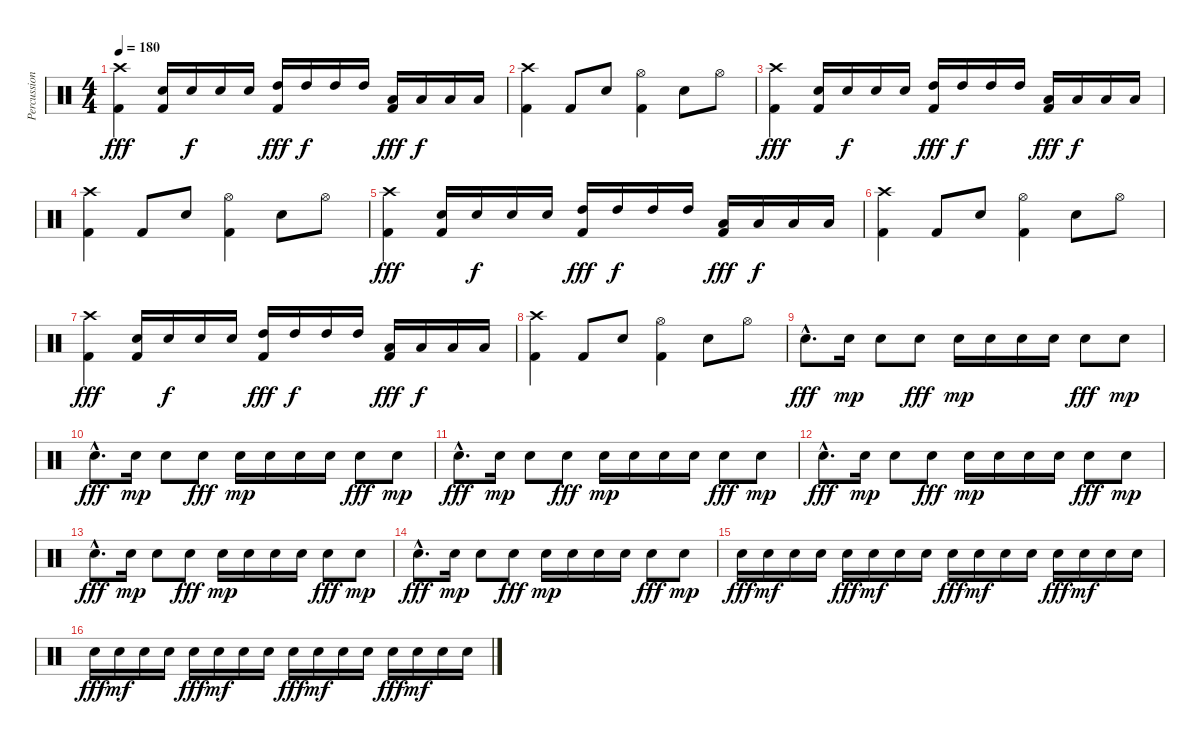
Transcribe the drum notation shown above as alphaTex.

\track ("Percussion" "Percussion") {instrument percussion}
\staff {score}
\articulation defaults
\ts (4 4)
\tempo 180
\clef neutral
\ks c
("Crash high (hit)" "Kick (hit) 2").4{dy fff} ("Snare (hit) 2" "Kick (hit) 2").16 "Snare (hit) 2".16{dy f} "Snare (hit) 2".16 "Snare (hit) 2".16 ("High Tom (hit)" "Kick (hit) 2").16{dy fff} "High Tom (hit)".16{dy f} "High Tom (hit)".16 "High Tom (hit)".16 ("Low Floor Tom (hit)" "Kick (hit) 2").16{dy fff} "Low Floor Tom (hit)".16{dy f} "Low Floor Tom (hit)".16 "Low Floor Tom (hit)".16 |
("Crash high (hit)" "Kick (hit) 2").4 "Kick (hit) 2".8 "Electric Snare (hit)".8 ("Hi-Hat (open)" "Kick (hit) 2").4 "Electric Snare (hit)".8 "Hi-Hat (open)".8 |
("Crash high (hit)" "Kick (hit) 2").4{dy fff} ("Snare (hit) 2" "Kick (hit) 2").16 "Snare (hit) 2".16{dy f} "Snare (hit) 2".16 "Snare (hit) 2".16 ("High Tom (hit)" "Kick (hit) 2").16{dy fff} "High Tom (hit)".16{dy f} "High Tom (hit)".16 "High Tom (hit)".16 ("Low Floor Tom (hit)" "Kick (hit) 2").16{dy fff} "Low Floor Tom (hit)".16{dy f} "Low Floor Tom (hit)".16 "Low Floor Tom (hit)".16 |
("Crash high (hit)" "Kick (hit) 2").4 "Kick (hit) 2".8 "Electric Snare (hit)".8 ("Hi-Hat (open)" "Kick (hit) 2").4 "Electric Snare (hit)".8 "Hi-Hat (open)".8 |
("Crash high (hit)" "Kick (hit) 2").4{dy fff} ("Snare (hit) 2" "Kick (hit) 2").16 "Snare (hit) 2".16{dy f} "Snare (hit) 2".16 "Snare (hit) 2".16 ("High Tom (hit)" "Kick (hit) 2").16{dy fff} "High Tom (hit)".16{dy f} "High Tom (hit)".16 "High Tom (hit)".16 ("Low Floor Tom (hit)" "Kick (hit) 2").16{dy fff} "Low Floor Tom (hit)".16{dy f} "Low Floor Tom (hit)".16 "Low Floor Tom (hit)".16 |
("Crash high (hit)" "Kick (hit) 2").4 "Kick (hit) 2".8 "Electric Snare (hit)".8 ("Hi-Hat (open)" "Kick (hit) 2").4 "Electric Snare (hit)".8 "Hi-Hat (open)".8 |
("Crash high (hit)" "Kick (hit) 2").4{dy fff} ("Snare (hit) 2" "Kick (hit) 2").16 "Snare (hit) 2".16{dy f} "Snare (hit) 2".16 "Snare (hit) 2".16 ("High Tom (hit)" "Kick (hit) 2").16{dy fff} "High Tom (hit)".16{dy f} "High Tom (hit)".16 "High Tom (hit)".16 ("Low Floor Tom (hit)" "Kick (hit) 2").16{dy fff} "Low Floor Tom (hit)".16{dy f} "Low Floor Tom (hit)".16 "Low Floor Tom (hit)".16 |
("Crash high (hit)" "Kick (hit) 2").4 "Kick (hit) 2".8 "Electric Snare (hit)".8 ("Hi-Hat (open)" "Kick (hit) 2").4 "Electric Snare (hit)".8 "Hi-Hat (open)".8 |
"Electric Snare (hit)"{hac}.8{d dy fff} "Electric Snare (hit)".16{dy mp} "Electric Snare (hit)".8 "Electric Snare (hit)".8{dy fff} "Electric Snare (hit)".16{dy mp} "Electric Snare (hit)".16 "Electric Snare (hit)".16 "Electric Snare (hit)".16 "Electric Snare (hit)".8{dy fff} "Electric Snare (hit)".8{dy mp} |
"Electric Snare (hit)"{hac}.8{d dy fff} "Electric Snare (hit)".16{dy mp} "Electric Snare (hit)".8 "Electric Snare (hit)".8{dy fff} "Electric Snare (hit)".16{dy mp} "Electric Snare (hit)".16 "Electric Snare (hit)".16 "Electric Snare (hit)".16 "Electric Snare (hit)".8{dy fff} "Electric Snare (hit)".8{dy mp} |
"Electric Snare (hit)"{hac}.8{d dy fff} "Electric Snare (hit)".16{dy mp} "Electric Snare (hit)".8 "Electric Snare (hit)".8{dy fff} "Electric Snare (hit)".16{dy mp} "Electric Snare (hit)".16 "Electric Snare (hit)".16 "Electric Snare (hit)".16 "Electric Snare (hit)".8{dy fff} "Electric Snare (hit)".8{dy mp} |
"Electric Snare (hit)"{hac}.8{d dy fff} "Electric Snare (hit)".16{dy mp} "Electric Snare (hit)".8 "Electric Snare (hit)".8{dy fff} "Electric Snare (hit)".16{dy mp} "Electric Snare (hit)".16 "Electric Snare (hit)".16 "Electric Snare (hit)".16 "Electric Snare (hit)".8{dy fff} "Electric Snare (hit)".8{dy mp} |
"Electric Snare (hit)"{hac}.8{d dy fff} "Electric Snare (hit)".16{dy mp} "Electric Snare (hit)".8 "Electric Snare (hit)".8{dy fff} "Electric Snare (hit)".16{dy mp} "Electric Snare (hit)".16 "Electric Snare (hit)".16 "Electric Snare (hit)".16 "Electric Snare (hit)".8{dy fff} "Electric Snare (hit)".8{dy mp} |
"Electric Snare (hit)"{hac}.8{d dy fff} "Electric Snare (hit)".16{dy mp} "Electric Snare (hit)".8 "Electric Snare (hit)".8{dy fff} "Electric Snare (hit)".16{dy mp} "Electric Snare (hit)".16 "Electric Snare (hit)".16 "Electric Snare (hit)".16 "Electric Snare (hit)".8{dy fff} "Electric Snare (hit)".8{dy mp} |
"Electric Snare (hit)".16{dy fff volume 16} "Electric Snare (hit)".16{dy mf} "Electric Snare (hit)".16 "Electric Snare (hit)".16 "Electric Snare (hit)".16{dy fff} "Electric Snare (hit)".16{dy mf} "Electric Snare (hit)".16 "Electric Snare (hit)".16 "Electric Snare (hit)".16{dy fff} "Electric Snare (hit)".16{dy mf} "Electric Snare (hit)".16 "Electric Snare (hit)".16 "Electric Snare (hit)".16{dy fff} "Electric Snare (hit)".16{dy mf} "Electric Snare (hit)".16 "Electric Snare (hit)".16 |
"Electric Snare (hit)".16{dy fff} "Electric Snare (hit)".16{dy mf} "Electric Snare (hit)".16 "Electric Snare (hit)".16 "Electric Snare (hit)".16{dy fff} "Electric Snare (hit)".16{dy mf} "Electric Snare (hit)".16 "Electric Snare (hit)".16 "Electric Snare (hit)".16{dy fff} "Electric Snare (hit)".16{dy mf} "Electric Snare (hit)".16 "Electric Snare (hit)".16 "Electric Snare (hit)".16{dy fff} "Electric Snare (hit)".16{dy mf} "Electric Snare (hit)".16 "Electric Snare (hit)".16
